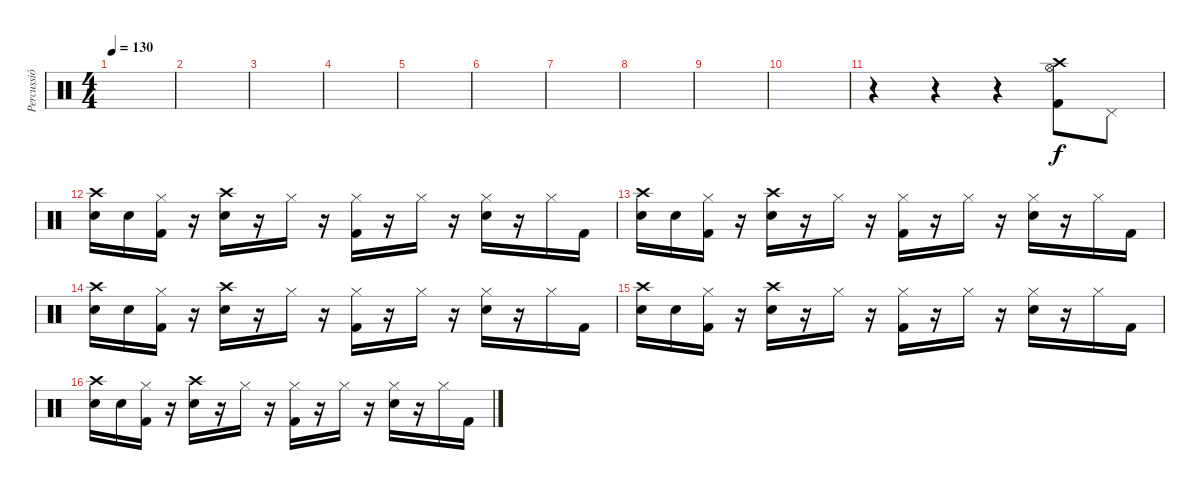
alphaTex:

\track ("Percussió" "Percussió") {instrument percussion}
\staff {score}
\articulation defaults
\ts (4 4)
\tempo 130
\clef neutral
\ks c
|
|
|
|
|
|
|
|
|
|
r.4 r.4 r.4 ("Crash high (hit)" "Hi-Hat (open)" "Kick (hit) 2").8 "Pedal Hi-Hat (hit)".8 |
("Crash high (hit)" "Snare (hit) 2").16 "Snare (hit) 2".16 ("Hi-Hat (closed)" "Kick (hit) 2").16 r.16 ("Crash high (hit)" "Snare (hit) 2").16 r.16 "Hi-Hat (closed)".16 r.16 ("Hi-Hat (closed)" "Kick (hit) 2").16 r.16 "Hi-Hat (closed)".16 r.16 ("Hi-Hat (closed)" "Snare (hit) 2").16 r.16 "Hi-Hat (closed)".16 "Kick (hit) 2".16 |
("Crash high (hit)" "Snare (hit) 2").16 "Snare (hit) 2".16 ("Hi-Hat (closed)" "Kick (hit) 2").16 r.16 ("Crash high (hit)" "Snare (hit) 2").16 r.16 "Hi-Hat (closed)".16 r.16 ("Hi-Hat (closed)" "Kick (hit) 2").16 r.16 "Hi-Hat (closed)".16 r.16 ("Hi-Hat (closed)" "Snare (hit) 2").16 r.16 "Hi-Hat (closed)".16 "Kick (hit) 2".16 |
("Crash high (hit)" "Snare (hit) 2").16 "Snare (hit) 2".16 ("Hi-Hat (closed)" "Kick (hit) 2").16 r.16 ("Crash high (hit)" "Snare (hit) 2").16 r.16 "Hi-Hat (closed)".16 r.16 ("Hi-Hat (closed)" "Kick (hit) 2").16 r.16 "Hi-Hat (closed)".16 r.16 ("Hi-Hat (closed)" "Snare (hit) 2").16 r.16 "Hi-Hat (closed)".16 "Kick (hit) 2".16 |
("Crash high (hit)" "Snare (hit) 2").16 "Snare (hit) 2".16 ("Hi-Hat (closed)" "Kick (hit) 2").16 r.16 ("Crash high (hit)" "Snare (hit) 2").16 r.16 "Hi-Hat (closed)".16 r.16 ("Hi-Hat (closed)" "Kick (hit) 2").16 r.16 "Hi-Hat (closed)".16 r.16 ("Hi-Hat (closed)" "Snare (hit) 2").16 r.16 "Hi-Hat (closed)".16 "Kick (hit) 2".16 |
("Crash high (hit)" "Snare (hit) 2").16 "Snare (hit) 2".16 ("Hi-Hat (closed)" "Kick (hit) 2").16 r.16 ("Crash high (hit)" "Snare (hit) 2").16 r.16 "Hi-Hat (closed)".16 r.16 ("Hi-Hat (closed)" "Kick (hit) 2").16 r.16 "Hi-Hat (closed)".16 r.16 ("Hi-Hat (closed)" "Snare (hit) 2").16 r.16 "Hi-Hat (closed)".16 "Kick (hit) 2".16
